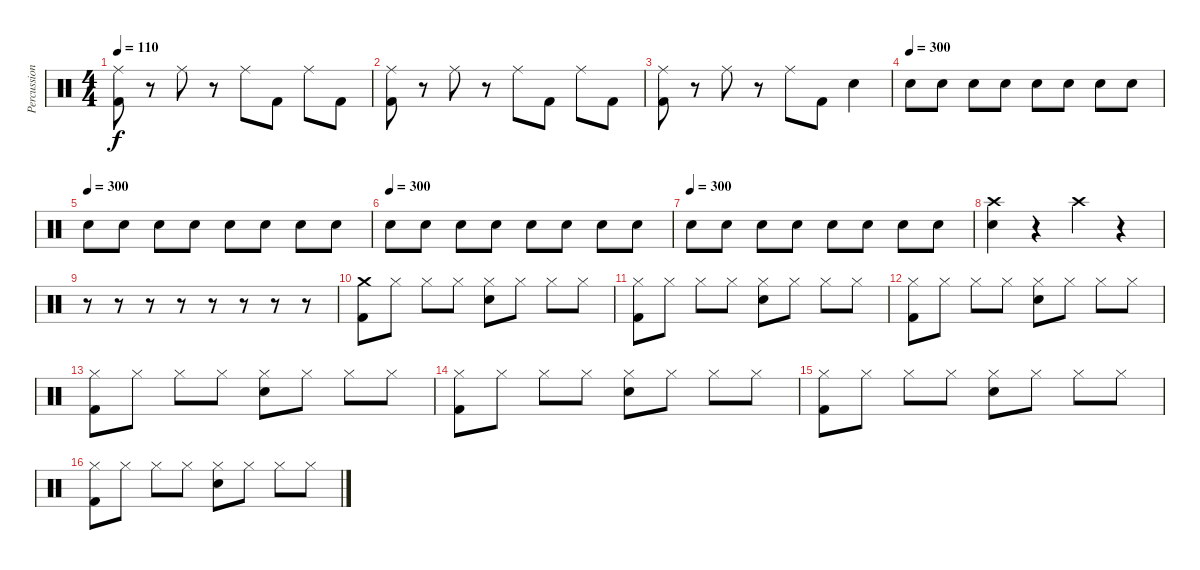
\track ("Percussion" "Percussion") {instrument percussion}
\staff {score}
\articulation defaults
\ts (4 4)
\tempo 110
\clef neutral
\ks c
("Kick (hit) 2" "Ride (middle)").8{dy f} r.8 "Ride (middle)".8 r.8 "Ride (middle)".8 "Kick (hit) 2".8 "Ride (middle)".8 "Kick (hit) 2".8 |
("Kick (hit) 2" "Ride (middle)").8 r.8 "Ride (middle)".8 r.8 "Ride (middle)".8 "Kick (hit) 2".8 "Ride (middle)".8 "Kick (hit) 2".8 |
("Kick (hit) 2" "Ride (middle)").8 r.8 "Ride (middle)".8 r.8 "Ride (middle)".8 "Kick (hit) 2".8 "Snare (hit) 2".4 |
\tempo (300)
"Snare (hit) 2".8 "Snare (hit) 2".8 "Snare (hit) 2".8 "Snare (hit) 2".8 "Snare (hit) 2".8 "Snare (hit) 2".8 "Snare (hit) 2".8 "Snare (hit) 2".8 |
\tempo (300)
"Snare (hit) 2".8 "Snare (hit) 2".8 "Snare (hit) 2".8 "Snare (hit) 2".8 "Snare (hit) 2".8 "Snare (hit) 2".8 "Snare (hit) 2".8 "Snare (hit) 2".8 |
\tempo (300)
"Snare (hit) 2".8 "Snare (hit) 2".8 "Snare (hit) 2".8 "Snare (hit) 2".8 "Snare (hit) 2".8 "Snare (hit) 2".8 "Snare (hit) 2".8 "Snare (hit) 2".8 |
\tempo (300)
"Snare (hit) 2".8 "Snare (hit) 2".8 "Snare (hit) 2".8 "Snare (hit) 2".8 "Snare (hit) 2".8 "Snare (hit) 2".8 "Snare (hit) 2".8 "Snare (hit) 2".8 |
("Snare (hit) 2" "Crash high (hit)").4 r.4 "Crash high (hit)".4 r.4 |
r.8 r.8 r.8 r.8 r.8 r.8 r.8 r.8 |
("Crash medium (hit)" "Kick (hit) 2").8 "Hi-Hat (closed)".8 "Hi-Hat (closed)".8 "Hi-Hat (closed)".8 ("Snare (hit) 2" "Hi-Hat (closed)").8 "Hi-Hat (closed)".8 "Hi-Hat (closed)".8 "Hi-Hat (closed)".8 |
("Kick (hit) 2" "Hi-Hat (closed)").8 "Hi-Hat (closed)".8 "Hi-Hat (closed)".8 "Hi-Hat (closed)".8 ("Snare (hit) 2" "Hi-Hat (closed)").8 "Hi-Hat (closed)".8 "Hi-Hat (closed)".8 "Hi-Hat (closed)".8 |
("Kick (hit) 2" "Hi-Hat (closed)").8 "Hi-Hat (closed)".8 "Hi-Hat (closed)".8 "Hi-Hat (closed)".8 ("Snare (hit) 2" "Hi-Hat (closed)").8 "Hi-Hat (closed)".8 "Hi-Hat (closed)".8 "Hi-Hat (closed)".8 |
("Kick (hit) 2" "Hi-Hat (closed)").8 "Hi-Hat (closed)".8 "Hi-Hat (closed)".8 "Hi-Hat (closed)".8 ("Snare (hit) 2" "Hi-Hat (closed)").8 "Hi-Hat (closed)".8 "Hi-Hat (closed)".8 "Hi-Hat (closed)".8 |
("Kick (hit) 2" "Hi-Hat (closed)").8 "Hi-Hat (closed)".8 "Hi-Hat (closed)".8 "Hi-Hat (closed)".8 ("Snare (hit) 2" "Hi-Hat (closed)").8 "Hi-Hat (closed)".8 "Hi-Hat (closed)".8 "Hi-Hat (closed)".8 |
("Kick (hit) 2" "Hi-Hat (closed)").8 "Hi-Hat (closed)".8 "Hi-Hat (closed)".8 "Hi-Hat (closed)".8 ("Snare (hit) 2" "Hi-Hat (closed)").8 "Hi-Hat (closed)".8 "Hi-Hat (closed)".8 "Hi-Hat (closed)".8 |
("Kick (hit) 2" "Hi-Hat (closed)").8 "Hi-Hat (closed)".8 "Hi-Hat (closed)".8 "Hi-Hat (closed)".8 ("Snare (hit) 2" "Hi-Hat (closed)").8 "Hi-Hat (closed)".8 "Hi-Hat (closed)".8 "Hi-Hat (closed)".8
